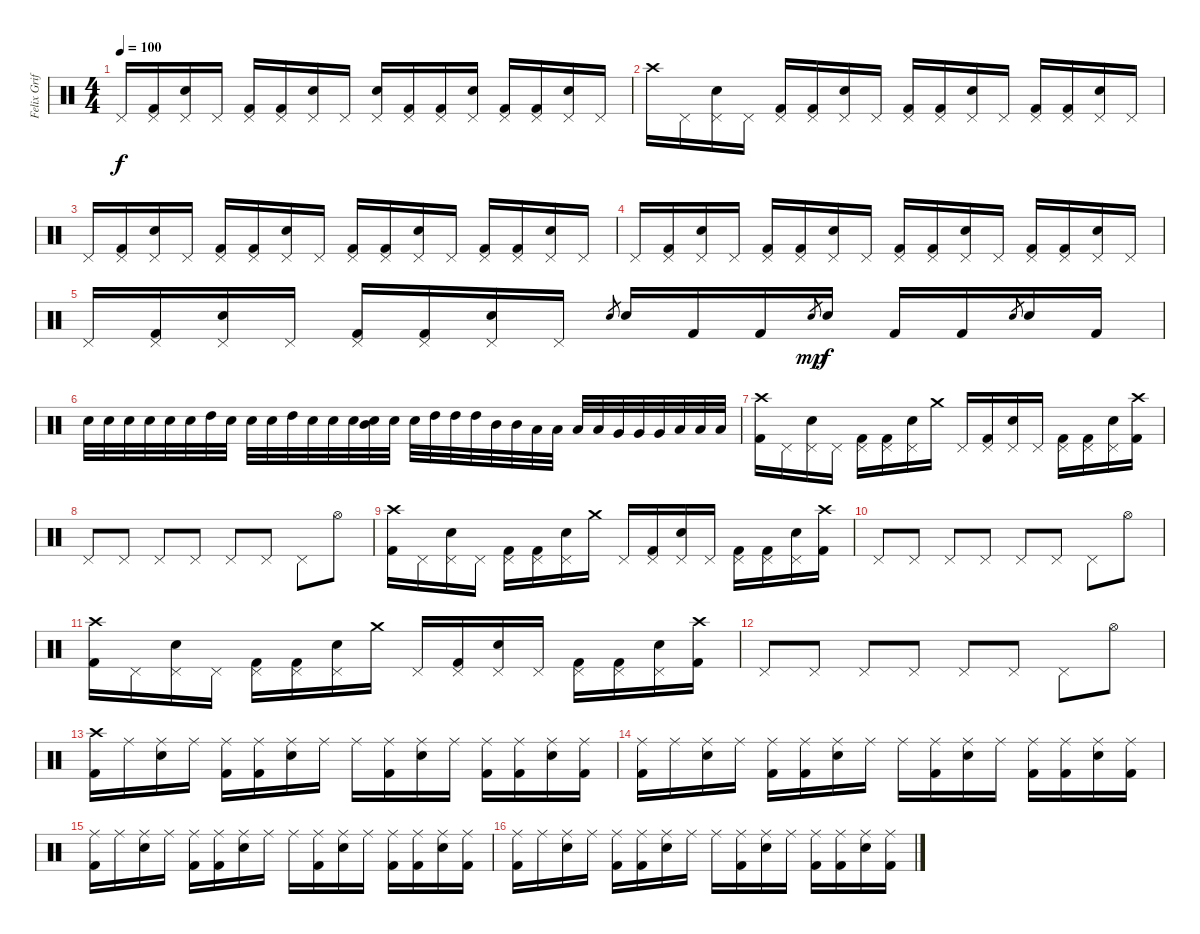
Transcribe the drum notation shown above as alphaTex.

\track ("Felix Griffen" "Felix Grif") {instrument percussion}
\staff {score}
\articulation defaults
\ts (4 4)
\tempo 100
\clef neutral
\ks c "Pedal Hi-Hat (hit)".16{dy f}
("Pedal Hi-Hat (hit)" "Kick (hit) 2").16 ("Pedal Hi-Hat (hit)" "Electric Snare (hit)").16 "Pedal Hi-Hat (hit)".16 ("Pedal Hi-Hat (hit)" "Kick (hit) 2").16 ("Pedal Hi-Hat (hit)" "Kick (hit) 2").16 ("Pedal Hi-Hat (hit)" "Electric Snare (hit)").16 "Pedal Hi-Hat (hit)".16 ("Pedal Hi-Hat (hit)" "Electric Snare (hit)").16 ("Pedal Hi-Hat (hit)" "Kick (hit) 2").16 ("Pedal Hi-Hat (hit)" "Kick (hit) 2").16 ("Pedal Hi-Hat (hit)" "Electric Snare (hit)").16 ("Pedal Hi-Hat (hit)" "Kick (hit) 2").16 ("Pedal Hi-Hat (hit)" "Kick (hit) 2").16 ("Pedal Hi-Hat (hit)" "Electric Snare (hit)").16 "Pedal Hi-Hat (hit)".16 |
"Crash high (hit)".16 "Pedal Hi-Hat (hit)".16 ("Pedal Hi-Hat (hit)" "Electric Snare (hit)").16 "Pedal Hi-Hat (hit)".16 ("Pedal Hi-Hat (hit)" "Kick (hit) 2").16 ("Pedal Hi-Hat (hit)" "Kick (hit) 2").16 ("Pedal Hi-Hat (hit)" "Electric Snare (hit)").16 "Pedal Hi-Hat (hit)".16 ("Pedal Hi-Hat (hit)" "Kick (hit) 2").16 ("Pedal Hi-Hat (hit)" "Kick (hit) 2").16 ("Pedal Hi-Hat (hit)" "Electric Snare (hit)").16 "Pedal Hi-Hat (hit)".16 ("Pedal Hi-Hat (hit)" "Kick (hit) 2").16 ("Pedal Hi-Hat (hit)" "Kick (hit) 2").16 ("Pedal Hi-Hat (hit)" "Electric Snare (hit)").16 "Pedal Hi-Hat (hit)".16 |
"Pedal Hi-Hat (hit)".16 ("Pedal Hi-Hat (hit)" "Kick (hit) 2").16 ("Pedal Hi-Hat (hit)" "Electric Snare (hit)").16 "Pedal Hi-Hat (hit)".16 ("Pedal Hi-Hat (hit)" "Kick (hit) 2").16 ("Pedal Hi-Hat (hit)" "Kick (hit) 2").16 ("Pedal Hi-Hat (hit)" "Electric Snare (hit)").16 "Pedal Hi-Hat (hit)".16 ("Pedal Hi-Hat (hit)" "Kick (hit) 2").16 ("Pedal Hi-Hat (hit)" "Kick (hit) 2").16 ("Pedal Hi-Hat (hit)" "Electric Snare (hit)").16 "Pedal Hi-Hat (hit)".16 ("Pedal Hi-Hat (hit)" "Kick (hit) 2").16 ("Pedal Hi-Hat (hit)" "Kick (hit) 2").16 ("Pedal Hi-Hat (hit)" "Electric Snare (hit)").16 "Pedal Hi-Hat (hit)".16 |
"Pedal Hi-Hat (hit)".16 ("Pedal Hi-Hat (hit)" "Kick (hit) 2").16 ("Pedal Hi-Hat (hit)" "Electric Snare (hit)").16 "Pedal Hi-Hat (hit)".16 ("Pedal Hi-Hat (hit)" "Kick (hit) 2").16 ("Pedal Hi-Hat (hit)" "Kick (hit) 2").16 ("Pedal Hi-Hat (hit)" "Electric Snare (hit)").16 "Pedal Hi-Hat (hit)".16 ("Pedal Hi-Hat (hit)" "Kick (hit) 2").16 ("Pedal Hi-Hat (hit)" "Kick (hit) 2").16 ("Pedal Hi-Hat (hit)" "Electric Snare (hit)").16 "Pedal Hi-Hat (hit)".16 ("Pedal Hi-Hat (hit)" "Kick (hit) 2").16 ("Pedal Hi-Hat (hit)" "Kick (hit) 2").16 ("Pedal Hi-Hat (hit)" "Electric Snare (hit)").16 "Pedal Hi-Hat (hit)".16 |
"Pedal Hi-Hat (hit)".16 ("Pedal Hi-Hat (hit)" "Kick (hit) 2").16 ("Pedal Hi-Hat (hit)" "Electric Snare (hit)").16 "Pedal Hi-Hat (hit)".16 ("Pedal Hi-Hat (hit)" "Kick (hit) 2").16 ("Pedal Hi-Hat (hit)" "Kick (hit) 2").16 ("Pedal Hi-Hat (hit)" "Electric Snare (hit)").16 "Pedal Hi-Hat (hit)".16 "Electric Snare (hit)".8{gr} "Electric Snare (hit)".16 "Kick (hit) 2".16 "Kick (hit) 2".16 "Electric Snare (hit)".8{gr dy mp} "Electric Snare (hit)".16{dy f} "Kick (hit) 2".16 "Kick (hit) 2".16 "Electric Snare (hit)".8{gr} "Electric Snare (hit)".16 "Kick (hit) 2".16 |
"Electric Snare (hit)".32 "Electric Snare (hit)".32 "Electric Snare (hit)".32 "Electric Snare (hit)".32 "Electric Snare (hit)".32 "Electric Snare (hit)".32 "High Tom (hit)".32 "Electric Snare (hit)".32 "Electric Snare (hit)".32 "Electric Snare (hit)".32 "High Tom (hit)".32 "Electric Snare (hit)".32 "Electric Snare (hit)".32 "Electric Snare (hit)".32 ("Mid Tom (hit)" "Electric Snare (hit)").32 "Electric Snare (hit)".32 "Electric Snare (hit)".32 "High Tom (hit)".32 "High Tom (hit)".32 "High Tom (hit)".32 "Mid Tom (hit)".32 "Mid Tom (hit)".32 "Low Tom (hit)".32 "Low Tom (hit)".32 "Low Tom (hit)".32 "Low Tom (hit)".32 "Very Low Tom (hit)".32 "Very Low Tom (hit)".32 "Very Low Tom (hit)".32 "Low Floor Tom (hit)".32 "Low Floor Tom (hit)".32 "Low Floor Tom (hit)".32 |
("Crash high (hit)" "Kick (hit) 2").16 "Pedal Hi-Hat (hit)".16 ("Pedal Hi-Hat (hit)" "Electric Snare (hit)").16 "Pedal Hi-Hat (hit)".16 ("Pedal Hi-Hat (hit)" "Kick (hit) 2").16 ("Pedal Hi-Hat (hit)" "Kick (hit) 2").16 ("Pedal Hi-Hat (hit)" "Electric Snare (hit)").16 "Crash medium (hit)".16 "Pedal Hi-Hat (hit)".16 ("Pedal Hi-Hat (hit)" "Kick (hit) 2").16 ("Pedal Hi-Hat (hit)" "Electric Snare (hit)").16 "Pedal Hi-Hat (hit)".16 ("Pedal Hi-Hat (hit)" "Kick (hit) 2").16 ("Pedal Hi-Hat (hit)" "Kick (hit) 2").16 ("Pedal Hi-Hat (hit)" "Electric Snare (hit)").16 ("Crash high (hit)" "Kick (hit) 2").16 |
"Pedal Hi-Hat (hit)".8 "Pedal Hi-Hat (hit)".8 "Pedal Hi-Hat (hit)".8 "Pedal Hi-Hat (hit)".8 "Pedal Hi-Hat (hit)".8 "Pedal Hi-Hat (hit)".8 "Pedal Hi-Hat (hit)".8 "Hi-Hat (open)".8 |
("Crash high (hit)" "Kick (hit) 2").16 "Pedal Hi-Hat (hit)".16 ("Pedal Hi-Hat (hit)" "Electric Snare (hit)").16 "Pedal Hi-Hat (hit)".16 ("Pedal Hi-Hat (hit)" "Kick (hit) 2").16 ("Pedal Hi-Hat (hit)" "Kick (hit) 2").16 ("Pedal Hi-Hat (hit)" "Electric Snare (hit)").16 "Crash medium (hit)".16 "Pedal Hi-Hat (hit)".16 ("Pedal Hi-Hat (hit)" "Kick (hit) 2").16 ("Pedal Hi-Hat (hit)" "Electric Snare (hit)").16 "Pedal Hi-Hat (hit)".16 ("Pedal Hi-Hat (hit)" "Kick (hit) 2").16 ("Pedal Hi-Hat (hit)" "Kick (hit) 2").16 ("Pedal Hi-Hat (hit)" "Electric Snare (hit)").16 ("Crash high (hit)" "Kick (hit) 2").16 |
"Pedal Hi-Hat (hit)".8 "Pedal Hi-Hat (hit)".8 "Pedal Hi-Hat (hit)".8 "Pedal Hi-Hat (hit)".8 "Pedal Hi-Hat (hit)".8 "Pedal Hi-Hat (hit)".8 "Pedal Hi-Hat (hit)".8 "Hi-Hat (open)".8 |
("Crash high (hit)" "Kick (hit) 2").16 "Pedal Hi-Hat (hit)".16 ("Pedal Hi-Hat (hit)" "Electric Snare (hit)").16 "Pedal Hi-Hat (hit)".16 ("Pedal Hi-Hat (hit)" "Kick (hit) 2").16 ("Pedal Hi-Hat (hit)" "Kick (hit) 2").16 ("Pedal Hi-Hat (hit)" "Electric Snare (hit)").16 "Crash medium (hit)".16 "Pedal Hi-Hat (hit)".16 ("Pedal Hi-Hat (hit)" "Kick (hit) 2").16 ("Pedal Hi-Hat (hit)" "Electric Snare (hit)").16 "Pedal Hi-Hat (hit)".16 ("Pedal Hi-Hat (hit)" "Kick (hit) 2").16 ("Pedal Hi-Hat (hit)" "Kick (hit) 2").16 ("Pedal Hi-Hat (hit)" "Electric Snare (hit)").16 ("Crash high (hit)" "Kick (hit) 2").16 |
"Pedal Hi-Hat (hit)".8 "Pedal Hi-Hat (hit)".8 "Pedal Hi-Hat (hit)".8 "Pedal Hi-Hat (hit)".8 "Pedal Hi-Hat (hit)".8 "Pedal Hi-Hat (hit)".8 "Pedal Hi-Hat (hit)".8 "Hi-Hat (open)".8 |
("Crash high (hit)" "Kick (hit) 2").16 "Ride (middle)".16 ("Ride (middle)" "Electric Snare (hit)").16 "Ride (middle)".16 ("Ride (middle)" "Kick (hit) 2").16 ("Ride (middle)" "Kick (hit) 2").16 ("Ride (middle)" "Electric Snare (hit)").16 "Ride (middle)".16 "Ride (middle)".16 ("Ride (middle)" "Kick (hit) 2").16 ("Ride (middle)" "Electric Snare (hit)").16 "Ride (middle)".16 ("Ride (middle)" "Kick (hit) 2").16 ("Ride (middle)" "Kick (hit) 2").16 ("Ride (middle)" "Electric Snare (hit)").16 ("Ride (middle)" "Kick (hit) 2").16 |
("Ride (middle)" "Kick (hit) 2").16 "Ride (middle)".16 ("Ride (middle)" "Electric Snare (hit)").16 "Ride (middle)".16 ("Ride (middle)" "Kick (hit) 2").16 ("Ride (middle)" "Kick (hit) 2").16 ("Ride (middle)" "Electric Snare (hit)").16 "Ride (middle)".16 "Ride (middle)".16 ("Ride (middle)" "Kick (hit) 2").16 ("Ride (middle)" "Electric Snare (hit)").16 "Ride (middle)".16 ("Ride (middle)" "Kick (hit) 2").16 ("Ride (middle)" "Kick (hit) 2").16 ("Ride (middle)" "Electric Snare (hit)").16 ("Ride (middle)" "Kick (hit) 2").16 |
("Ride (middle)" "Kick (hit) 2").16 "Ride (middle)".16 ("Ride (middle)" "Electric Snare (hit)").16 "Ride (middle)".16 ("Ride (middle)" "Kick (hit) 2").16 ("Ride (middle)" "Kick (hit) 2").16 ("Ride (middle)" "Electric Snare (hit)").16 "Ride (middle)".16 "Ride (middle)".16 ("Ride (middle)" "Kick (hit) 2").16 ("Ride (middle)" "Electric Snare (hit)").16 "Ride (middle)".16 ("Ride (middle)" "Kick (hit) 2").16 ("Ride (middle)" "Kick (hit) 2").16 ("Ride (middle)" "Electric Snare (hit)").16 ("Ride (middle)" "Kick (hit) 2").16 |
("Ride (middle)" "Kick (hit) 2").16 "Ride (middle)".16 ("Ride (middle)" "Electric Snare (hit)").16 "Ride (middle)".16 ("Ride (middle)" "Kick (hit) 2").16 ("Ride (middle)" "Kick (hit) 2").16 ("Ride (middle)" "Electric Snare (hit)").16 "Ride (middle)".16 "Ride (middle)".16 ("Ride (middle)" "Kick (hit) 2").16 ("Ride (middle)" "Electric Snare (hit)").16 "Ride (middle)".16 ("Ride (middle)" "Kick (hit) 2").16 ("Ride (middle)" "Kick (hit) 2").16 ("Ride (middle)" "Electric Snare (hit)").16 ("Ride (middle)" "Kick (hit) 2").16
